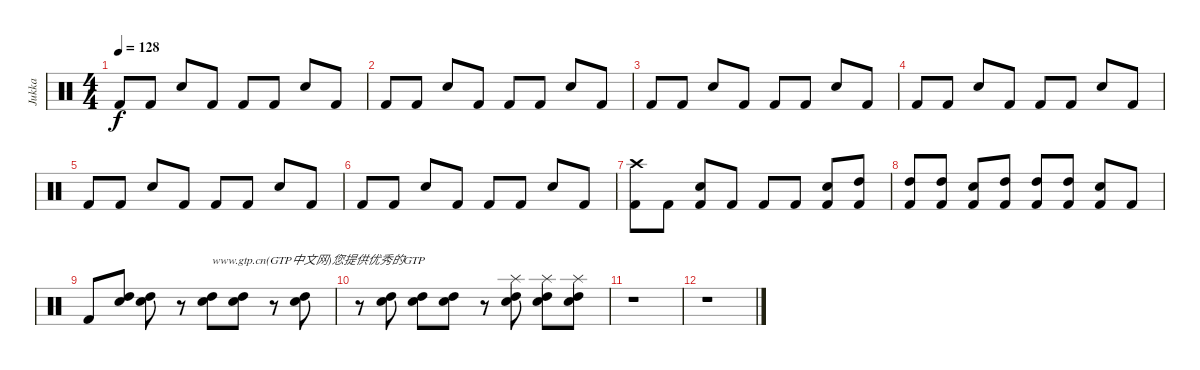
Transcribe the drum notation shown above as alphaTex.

\track ("Jukka" "Jukka") {instrument percussion}
\staff {score}
\articulation defaults
\ts (4 4)
\tempo 128
\clef neutral
\ks c "Kick (hit) 2".8{dy f} "Kick (hit) 2".8 "Electric Snare (hit)".8 "Kick (hit) 2".8 "Kick (hit) 2".8 "Kick (hit) 2".8 "Electric Snare (hit)".8 "Kick (hit) 2".8
|
"Kick (hit) 2".8 "Kick (hit) 2".8 "Electric Snare (hit)".8 "Kick (hit) 2".8 "Kick (hit) 2".8 "Kick (hit) 2".8 "Electric Snare (hit)".8 "Kick (hit) 2".8 |
"Kick (hit) 2".8 "Kick (hit) 2".8 "Electric Snare (hit)".8 "Kick (hit) 2".8 "Kick (hit) 2".8 "Kick (hit) 2".8 "Electric Snare (hit)".8 "Kick (hit) 2".8 |
"Kick (hit) 2".8 "Kick (hit) 2".8 "Electric Snare (hit)".8 "Kick (hit) 2".8 "Kick (hit) 2".8 "Kick (hit) 2".8 "Electric Snare (hit)".8 "Kick (hit) 2".8 |
"Kick (hit) 2".8 "Kick (hit) 2".8 "Electric Snare (hit)".8 "Kick (hit) 2".8 "Kick (hit) 2".8 "Kick (hit) 2".8 "Electric Snare (hit)".8 "Kick (hit) 2".8 |
"Kick (hit) 2".8 "Kick (hit) 2".8 "Electric Snare (hit)".8 "Kick (hit) 2".8 "Kick (hit) 2".8 "Kick (hit) 2".8 "Electric Snare (hit)".8 "Kick (hit) 2".8 |
("Crash high (hit)" "Kick (hit) 2").8 "Kick (hit) 2".8 ("Electric Snare (hit)" "Kick (hit) 2").8 "Kick (hit) 2".8 "Kick (hit) 2".8 "Kick (hit) 2".8 ("Electric Snare (hit)" "Kick (hit) 2").8 ("Kick (hit) 2" "High Tom (hit)").8 |
("Kick (hit) 2" "High Tom (hit)").8 ("Kick (hit) 2" "High Tom (hit)").8 ("Electric Snare (hit)" "Kick (hit) 2").8 ("Kick (hit) 2" "High Tom (hit)").8 ("Kick (hit) 2" "High Tom (hit)").8 ("Kick (hit) 2" "High Tom (hit)").8 ("Electric Snare (hit)" "Kick (hit) 2").8 "Kick (hit) 2".8 |
"Kick (hit) 2".8 ("Electric Snare (hit)" "High Tom (hit)").8 ("Electric Snare (hit)" "High Tom (hit)").8 r.8 ("Electric Snare (hit)" "High Tom (hit)").8{txt "www.gtp.cn(GTP中文网)您提供优秀的GTP"} ("Electric Snare (hit)" "High Tom (hit)").8 r.8 ("Electric Snare (hit)" "High Tom (hit)").8 |
r.8 ("Electric Snare (hit)" "High Tom (hit)").8 ("Electric Snare (hit)" "High Tom (hit)").8 ("Electric Snare (hit)" "High Tom (hit)").8 r.8 ("Electric Snare (hit)" "High Tom (hit)" "Splash (hit)").8 ("Electric Snare (hit)" "High Tom (hit)" "Splash (hit)").8 ("Electric Snare (hit)" "High Tom (hit)" "Splash (hit)").8 |
r.1 |
r.1
